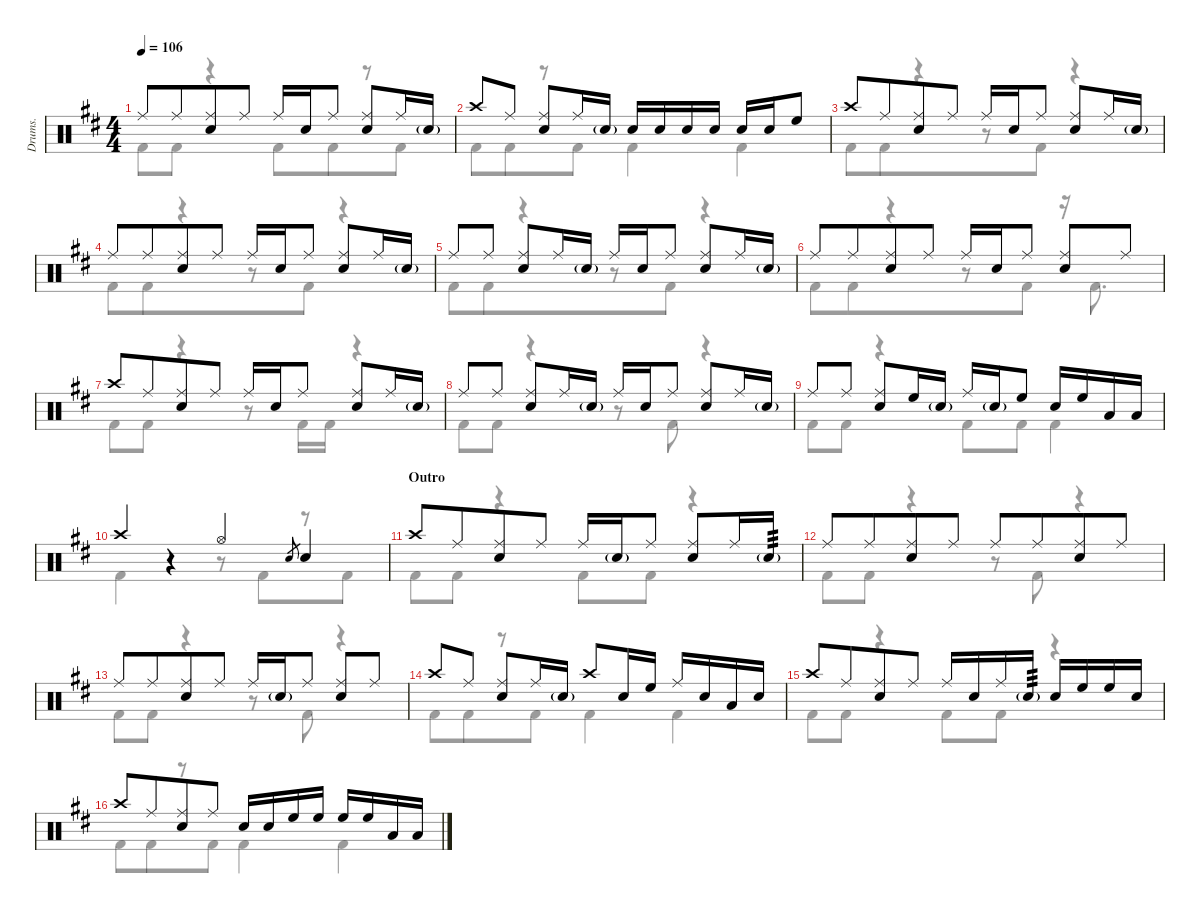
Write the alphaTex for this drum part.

\defaultSystemsLayout 4
\hideDynamics
\track ("Drumkit" "Drums.") {defaultSystemsLayout 4 instrument percussion}
\staff {score}
\articulation defaults
\voice
\ts (4 4)
\tempo 106
\clef neutral
\ks d "Ride (middle)"{acc forcenatural}.8{dy mf} "Ride (middle)"{acc forcenatural}.8{beam merge}
("Ride (middle)"{acc forcenatural} "Snare (hit) 2"{acc forcenatural}).8 "Ride (middle)"{acc forcenatural}.8 "Ride (middle)"{acc forcenatural}.16 "Snare (hit) 2"{acc forcenatural}.16 "Ride (middle)"{acc forcenatural}.8 ("Ride (middle)"{acc forcenatural} "Snare (hit) 2"{acc forcenatural}).8 "Ride (middle)"{acc forcenatural}.16 "Snare (hit) 2"{g acc forcenatural}.16 |
"Crash high (hit)"{acc forcenatural}.8 "Ride (middle)"{acc forcenatural}.8 ("Ride (middle)"{acc forcenatural} "Snare (hit) 2"{acc forcenatural}).8 "Ride (middle)"{acc forcenatural}.16 "Snare (hit) 2"{g acc forcenatural}.16 "Snare (hit) 2"{acc forcenatural}.16 "Snare (hit) 2"{acc forcenatural}.16 "Snare (hit) 2"{acc forcenatural}.16 "Snare (hit) 2"{acc forcenatural}.16 "Snare (hit) 2"{acc forcenatural}.16 "Snare (hit) 2"{acc forcenatural}.16 "High Floor Tom (hit)"{acc forcenatural}.8 |
"Crash high (hit)"{acc forcenatural}.8 "Ride (middle)"{acc forcenatural}.8{beam merge} ("Ride (middle)"{acc forcenatural} "Snare (hit) 2"{acc forcenatural}).8 "Ride (middle)"{acc forcenatural}.8 "Ride (middle)"{acc forcenatural}.16 "Snare (hit) 2"{acc forcenatural}.16 "Ride (middle)"{acc forcenatural}.8 ("Ride (middle)"{acc forcenatural} "Snare (hit) 2"{acc forcenatural}).8 "Ride (middle)"{acc forcenatural}.16 "Snare (hit) 2"{g acc forcenatural}.16 |
"Ride (middle)"{acc forcenatural}.8 "Ride (middle)"{acc forcenatural}.8{beam merge} ("Ride (middle)"{acc forcenatural} "Snare (hit) 2"{acc forcenatural}).8 "Ride (middle)"{acc forcenatural}.8 "Ride (middle)"{acc forcenatural}.16 "Snare (hit) 2"{acc forcenatural}.16 "Ride (middle)"{acc forcenatural}.8 ("Ride (middle)"{acc forcenatural} "Snare (hit) 2"{acc forcenatural}).8 "Ride (middle)"{acc forcenatural}.16 "Snare (hit) 2"{g acc forcenatural}.16 |
"Ride (middle)"{acc forcenatural}.8 "Ride (middle)"{acc forcenatural}.8 ("Ride (middle)"{acc forcenatural} "Snare (hit) 2"{acc forcenatural}).8 "Ride (middle)"{acc forcenatural}.16 "Snare (hit) 2"{g acc forcenatural}.16 "Ride (middle)"{acc forcenatural}.16 "Snare (hit) 2"{acc forcenatural}.16 "Ride (middle)"{acc forcenatural}.8 ("Ride (middle)"{acc forcenatural} "Snare (hit) 2"{acc forcenatural}).8 "Ride (middle)"{acc forcenatural}.16 "Snare (hit) 2"{g acc forcenatural}.16 |
"Ride (middle)"{acc forcenatural}.8 "Ride (middle)"{acc forcenatural}.8{beam merge} ("Ride (middle)"{acc forcenatural} "Snare (hit) 2"{acc forcenatural}).8 "Ride (middle)"{acc forcenatural}.8 "Ride (middle)"{acc forcenatural}.16 "Snare (hit) 2"{acc forcenatural}.16 "Ride (middle)"{acc forcenatural}.8 ("Ride (middle)"{acc forcenatural} "Snare (hit) 2"{acc forcenatural}).8 "Ride (middle)"{acc forcenatural}.8 |
"Crash high (hit)"{acc forcenatural}.8 "Ride (middle)"{acc forcenatural}.8{beam merge} ("Ride (middle)"{acc forcenatural} "Snare (hit) 2"{acc forcenatural}).8 "Ride (middle)"{acc forcenatural}.8 "Ride (middle)"{acc forcenatural}.16 "Snare (hit) 2"{acc forcenatural}.16 "Ride (middle)"{acc forcenatural}.8 ("Ride (middle)"{acc forcenatural} "Snare (hit) 2"{acc forcenatural}).8 "Ride (middle)"{acc forcenatural}.16 "Snare (hit) 2"{g acc forcenatural}.16 |
"Ride (middle)"{acc forcenatural}.8 "Ride (middle)"{acc forcenatural}.8 ("Ride (middle)"{acc forcenatural} "Snare (hit) 2"{acc forcenatural}).8 "Ride (middle)"{acc forcenatural}.16 "Snare (hit) 2"{g acc forcenatural}.16 "Ride (middle)"{acc forcenatural}.16 "Snare (hit) 2"{acc forcenatural}.16 "Ride (middle)"{acc forcenatural}.8 ("Ride (middle)"{acc forcenatural} "Snare (hit) 2"{acc forcenatural}).8 "Ride (middle)"{acc forcenatural}.16 "Snare (hit) 2"{g acc forcenatural}.16 |
"Ride (middle)"{acc forcenatural}.8 "Ride (middle)"{acc forcenatural}.8 ("Ride (middle)"{acc forcenatural} "Snare (hit) 2"{acc forcenatural}).8 "High Floor Tom (hit)"{acc forcenatural}.16 "Snare (hit) 2"{g acc forcenatural}.16 "Ride (middle)"{acc forcenatural}.16 "Snare (hit) 2"{g acc forcenatural}.16 "High Floor Tom (hit)"{acc forcenatural}.8 "Snare (hit) 2"{acc forcenatural}.16 "High Floor Tom (hit)"{acc forcenatural}.16 "Low Tom (hit)"{acc forcenatural}.16 "Low Tom (hit)"{acc forcenatural}.16 |
"Crash high (hit)"{acc forcenatural}.4 r.4 "Hi-Hat (open)"{acc forcenatural}.4 "Snare (hit) 2"{acc forcenatural}.8{gr} "Snare (hit) 2"{acc forcenatural}.4 |
\section ("" "Outro")
"Crash high (hit)"{acc forcenatural}.8 "Ride (middle)"{acc forcenatural}.8{beam merge} ("Ride (middle)"{acc forcenatural} "Snare (hit) 2"{acc forcenatural}).8{beam merge} "Ride (middle)"{acc forcenatural}.8 "Ride (middle)"{acc forcenatural}.16 "Snare (hit) 2"{g acc forcenatural}.16 "Ride (middle)"{acc forcenatural}.8 ("Ride (middle)"{acc forcenatural} "Snare (hit) 2"{acc forcenatural}).8 "Ride (middle)"{acc forcenatural}.16 "Snare (hit) 2"{g acc forcenatural}.16{tp 3} |
"Ride (middle)"{acc forcenatural}.8 "Ride (middle)"{acc forcenatural}.8{beam merge} ("Ride (middle)"{acc forcenatural} "Snare (hit) 2"{acc forcenatural}).8 "Ride (middle)"{acc forcenatural}.8 "Ride (middle)"{acc forcenatural}.8 "Ride (middle)"{acc forcenatural}.8{beam merge} ("Ride (middle)"{acc forcenatural} "Snare (hit) 2"{acc forcenatural}).8 "Ride (middle)"{acc forcenatural}.8 |
"Ride (middle)"{acc forcenatural}.8 "Ride (middle)"{acc forcenatural}.8{beam merge} ("Ride (middle)"{acc forcenatural} "Snare (hit) 2"{acc forcenatural}).8 "Ride (middle)"{acc forcenatural}.8 "Ride (middle)"{acc forcenatural}.16 "Snare (hit) 2"{g acc forcenatural}.16 "Ride (middle)"{acc forcenatural}.8 ("Ride (middle)"{acc forcenatural} "Snare (hit) 2"{acc forcenatural}).8 "Ride (middle)"{acc forcenatural}.8 |
"Crash high (hit)"{acc forcenatural}.8 "Ride (middle)"{acc forcenatural}.8 ("Ride (middle)"{acc forcenatural} "Snare (hit) 2"{acc forcenatural}).8 "Ride (middle)"{acc forcenatural}.16 "Snare (hit) 2"{g acc forcenatural}.16 "Crash high (hit)"{acc forcenatural}.8 "Snare (hit) 2"{acc forcenatural}.16 "High Floor Tom (hit)"{acc forcenatural}.16 "Ride (middle)"{acc forcenatural}.16 "Snare (hit) 2"{acc forcenatural}.16 "Low Tom (hit)"{acc forcenatural}.16 "Snare (hit) 2"{acc forcenatural}.16 |
"Crash high (hit)"{acc forcenatural}.8 "Ride (middle)"{acc forcenatural}.8{beam merge} ("Ride (middle)"{acc forcenatural} "Snare (hit) 2"{acc forcenatural}).8 "Ride (middle)"{acc forcenatural}.8 "Ride (middle)"{acc forcenatural}.16 "Snare (hit) 2"{acc forcenatural}.16 "Ride (middle)"{acc forcenatural}.16 "Snare (hit) 2"{g acc forcenatural}.16{tp 3} "Snare (hit) 2"{acc forcenatural}.16 "High Floor Tom (hit)"{acc forcenatural}.16 "High Floor Tom (hit)"{acc forcenatural}.16 "Snare (hit) 2"{acc forcenatural}.16 |
"Crash high (hit)"{acc forcenatural}.8 "Ride (middle)"{acc forcenatural}.8{beam merge} ("Ride (middle)"{acc forcenatural} "Snare (hit) 2"{acc forcenatural}).8{beam merge} "Ride (middle)"{acc forcenatural}.8 "Snare (hit) 2"{acc forcenatural}.16 "Snare (hit) 2"{acc forcenatural}.16 "High Floor Tom (hit)"{acc forcenatural}.16 "High Floor Tom (hit)"{acc forcenatural}.16 "High Floor Tom (hit)"{acc forcenatural}.16 "High Floor Tom (hit)"{acc forcenatural}.16 "Low Tom (hit)"{acc forcenatural}.16 "Low Tom (hit)"{acc forcenatural}.16
\voice
\clef neutral
\ottava regular
\simile none
\ks d "Kick (hit) 2"{acc forcenatural}.8{dy mf} "Kick (hit) 2"{acc forcenatural}.8
r.4 "Kick (hit) 2"{acc forcenatural}.8{beam merge} "Kick (hit) 2"{acc forcenatural}.8{beam merge} r.8{beam merge} "Kick (hit) 2"{acc forcenatural}.8 |
"Kick (hit) 2"{acc forcenatural}.8{beam merge} "Kick (hit) 2"{acc forcenatural}.8{beam merge} r.8{beam merge} "Kick (hit) 2"{acc forcenatural}.8 "Kick (hit) 2"{acc forcenatural}.4 "Kick (hit) 2"{acc forcenatural}.4 |
"Kick (hit) 2"{acc forcenatural}.8{beam merge} "Kick (hit) 2"{acc forcenatural}.8{beam merge} r.4{beam merge} r.8 "Kick (hit) 2"{acc forcenatural}.8 r.4 |
"Kick (hit) 2"{acc forcenatural}.8{beam merge} "Kick (hit) 2"{acc forcenatural}.8{beam merge} r.4{beam merge} r.8 "Kick (hit) 2"{acc forcenatural}.8 r.4 |
"Kick (hit) 2"{acc forcenatural}.8{beam merge} "Kick (hit) 2"{acc forcenatural}.8{beam merge} r.4{beam merge} r.8 "Kick (hit) 2"{acc forcenatural}.8 r.4 |
"Kick (hit) 2"{acc forcenatural}.8{beam merge} "Kick (hit) 2"{acc forcenatural}.8{beam merge} r.4{beam merge} r.8 "Kick (hit) 2"{acc forcenatural}.8 r.16 "Kick (hit) 2"{acc forcenatural}.8{d} |
"Kick (hit) 2"{acc forcenatural}.8 "Kick (hit) 2"{acc forcenatural}.8 r.4 r.8 "Kick (hit) 2"{acc forcenatural}.16 "Kick (hit) 2"{acc forcenatural}.16 r.4 |
"Kick (hit) 2"{acc forcenatural}.8 "Kick (hit) 2"{acc forcenatural}.8 r.4 r.8 "Kick (hit) 2"{acc forcenatural}.8 r.4 |
"Kick (hit) 2"{acc forcenatural}.8 "Kick (hit) 2"{acc forcenatural}.8 r.4 "Kick (hit) 2"{acc forcenatural}.8 "Kick (hit) 2"{acc forcenatural}.8 "Kick (hit) 2"{acc forcenatural}.4 |
"Kick (hit) 2"{acc forcenatural}.4 r.4 r.8 "Kick (hit) 2"{acc forcenatural}.8{beam merge} r.8{beam merge} "Kick (hit) 2"{acc forcenatural}.8 |
"Kick (hit) 2"{acc forcenatural}.8 "Kick (hit) 2"{acc forcenatural}.8 r.4 "Kick (hit) 2"{acc forcenatural}.8 "Kick (hit) 2"{acc forcenatural}.8 r.4 |
"Kick (hit) 2"{acc forcenatural}.8 "Kick (hit) 2"{acc forcenatural}.8 r.4 r.8 "Kick (hit) 2"{acc forcenatural}.8 r.4 |
"Kick (hit) 2"{acc forcenatural}.8 "Kick (hit) 2"{acc forcenatural}.8 r.4 r.8 "Kick (hit) 2"{acc forcenatural}.8 r.4 |
"Kick (hit) 2"{acc forcenatural}.8{beam merge} "Kick (hit) 2"{acc forcenatural}.8{beam merge} r.8{beam merge} "Kick (hit) 2"{acc forcenatural}.8 "Kick (hit) 2"{acc forcenatural}.4 "Kick (hit) 2"{acc forcenatural}.4 |
"Kick (hit) 2"{acc forcenatural}.8 "Kick (hit) 2"{acc forcenatural}.8 r.4 "Kick (hit) 2"{acc forcenatural}.8 "Kick (hit) 2"{acc forcenatural}.8 r.4 |
"Kick (hit) 2"{acc forcenatural}.8 "Kick (hit) 2"{acc forcenatural}.8{beam merge} r.8{beam merge} "Kick (hit) 2"{acc forcenatural}.8 "Kick (hit) 2"{acc forcenatural}.4 "Kick (hit) 2"{acc forcenatural}.4
